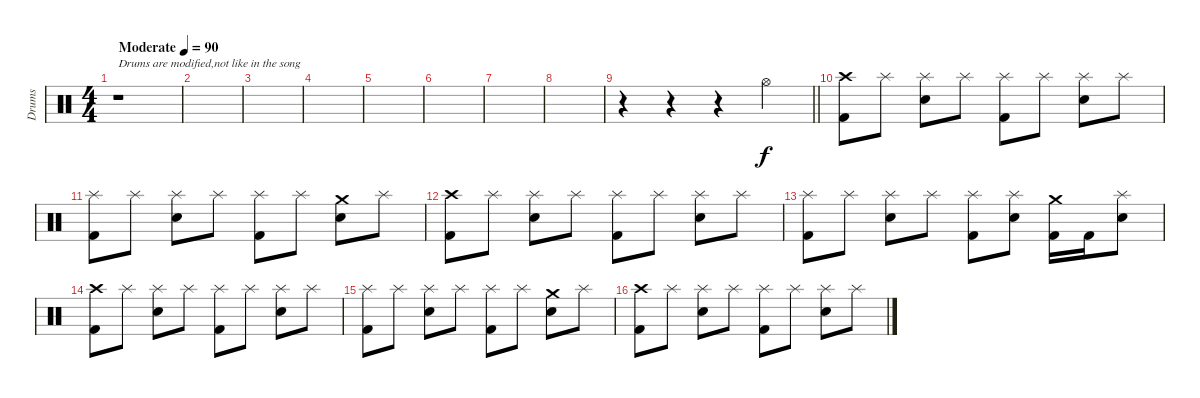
\track ("Drums" "Drums") {instrument percussion}
\staff {score}
\articulation defaults
\ts (4 4)
\section ("" "")
\tempo (90 "Moderate")
\clef neutral
\ks c
r.1{txt "Drums are modified,not like in the song" dy f} |
|
|
|
|
|
|
|
\barLineRight lightlight
r.4 r.4 r.4 "Hi-Hat (open)".4 |
\section ("" "")
("Crash high (hit)" "Kick (hit) 2").8 "Splash (hit)".8 ("Splash (hit)" "Electric Snare (hit)").8 "Splash (hit)".8 ("Splash (hit)" "Kick (hit) 2").8 "Splash (hit)".8 ("Splash (hit)" "Electric Snare (hit)").8 "Splash (hit)".8 |
("Splash (hit)" "Kick (hit) 2").8 "Splash (hit)".8 ("Splash (hit)" "Electric Snare (hit)").8 "Splash (hit)".8 ("Splash (hit)" "Kick (hit) 2").8 "Splash (hit)".8 ("Crash medium (hit)" "Electric Snare (hit)").8 "Splash (hit)".8 |
("Crash high (hit)" "Kick (hit) 2").8 "Splash (hit)".8 ("Splash (hit)" "Electric Snare (hit)").8 "Splash (hit)".8 ("Splash (hit)" "Kick (hit) 2").8 "Splash (hit)".8 ("Splash (hit)" "Electric Snare (hit)").8 "Splash (hit)".8 |
("Splash (hit)" "Kick (hit) 2").8 "Splash (hit)".8 ("Splash (hit)" "Electric Snare (hit)").8 "Splash (hit)".8 ("Splash (hit)" "Kick (hit) 2").8 ("Splash (hit)" "Electric Snare (hit)").8 ("Crash medium (hit)" "Kick (hit) 2").16 "Kick (hit) 2".16 ("Splash (hit)" "Snare (hit) 2").8 |
("Crash high (hit)" "Kick (hit) 2").8 "Splash (hit)".8 ("Splash (hit)" "Electric Snare (hit)").8 "Splash (hit)".8 ("Splash (hit)" "Kick (hit) 2").8 "Splash (hit)".8 ("Splash (hit)" "Electric Snare (hit)").8 "Splash (hit)".8 |
("Splash (hit)" "Kick (hit) 2").8 "Splash (hit)".8 ("Splash (hit)" "Electric Snare (hit)").8 "Splash (hit)".8 ("Splash (hit)" "Kick (hit) 2").8 "Splash (hit)".8 ("Crash medium (hit)" "Electric Snare (hit)").8 "Splash (hit)".8 |
("Crash high (hit)" "Kick (hit) 2").8 "Splash (hit)".8 ("Splash (hit)" "Electric Snare (hit)").8 "Splash (hit)".8 ("Splash (hit)" "Kick (hit) 2").8 "Splash (hit)".8 ("Splash (hit)" "Electric Snare (hit)").8 "Splash (hit)".8
